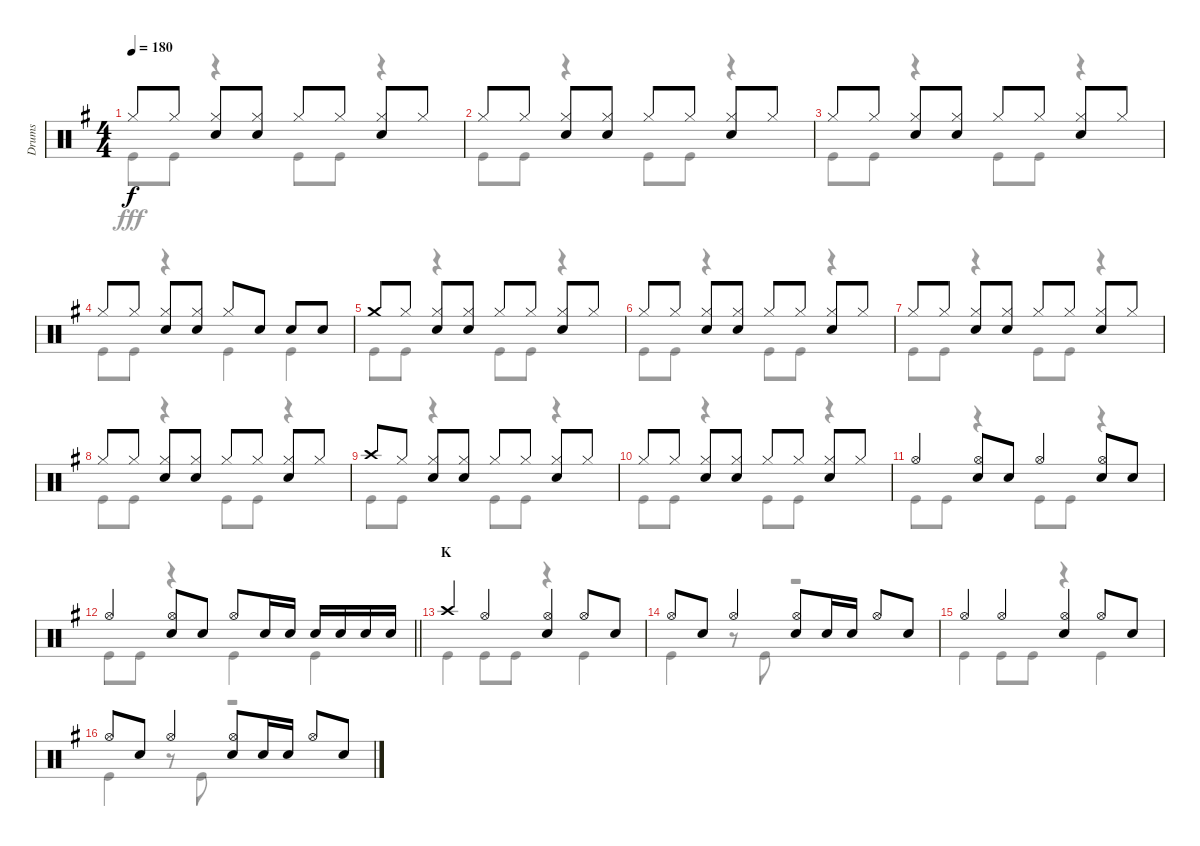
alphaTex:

\track ("Drums" "Drums") {instrument percussion}
\staff {score}
\articulation defaults
\voice
\ts (4 4)
\tempo 180
\clef neutral
\ks g "Hi-Hat (closed)".8{dy f} "Hi-Hat (closed)".8
("Hi-Hat (closed)" "Snare (hit) 2").8 ("Hi-Hat (closed)" "Snare (hit) 2").8 "Hi-Hat (closed)".8 "Hi-Hat (closed)".8 ("Hi-Hat (closed)" "Snare (hit) 2").8 "Hi-Hat (closed)".8 |
"Hi-Hat (closed)".8 "Hi-Hat (closed)".8 ("Hi-Hat (closed)" "Snare (hit) 2").8 ("Hi-Hat (closed)" "Snare (hit) 2").8 "Hi-Hat (closed)".8 "Hi-Hat (closed)".8 ("Hi-Hat (closed)" "Snare (hit) 2").8 "Hi-Hat (closed)".8 |
"Hi-Hat (closed)".8 "Hi-Hat (closed)".8 ("Hi-Hat (closed)" "Snare (hit) 2").8 ("Hi-Hat (closed)" "Snare (hit) 2").8 "Hi-Hat (closed)".8 "Hi-Hat (closed)".8 ("Hi-Hat (closed)" "Snare (hit) 2").8 "Hi-Hat (closed)".8 |
"Hi-Hat (closed)".8 "Hi-Hat (closed)".8 ("Hi-Hat (closed)" "Snare (hit) 2").8 ("Hi-Hat (closed)" "Snare (hit) 2").8 "Hi-Hat (closed)".8 "Snare (hit) 2".8 "Snare (hit) 2".8 "Snare (hit) 2".8 |
"Crash medium (hit)".8 "Hi-Hat (closed)".8 ("Hi-Hat (closed)" "Snare (hit) 2").8 ("Hi-Hat (closed)" "Snare (hit) 2").8 "Hi-Hat (closed)".8 "Hi-Hat (closed)".8 ("Hi-Hat (closed)" "Snare (hit) 2").8 "Hi-Hat (closed)".8 |
"Hi-Hat (closed)".8 "Hi-Hat (closed)".8 ("Hi-Hat (closed)" "Snare (hit) 2").8 ("Hi-Hat (closed)" "Snare (hit) 2").8 "Hi-Hat (closed)".8 "Hi-Hat (closed)".8 ("Hi-Hat (closed)" "Snare (hit) 2").8 "Hi-Hat (closed)".8 |
"Hi-Hat (closed)".8 "Hi-Hat (closed)".8 ("Hi-Hat (closed)" "Snare (hit) 2").8 ("Hi-Hat (closed)" "Snare (hit) 2").8 "Hi-Hat (closed)".8 "Hi-Hat (closed)".8 ("Hi-Hat (closed)" "Snare (hit) 2").8 "Hi-Hat (closed)".8 |
"Hi-Hat (closed)".8 "Hi-Hat (closed)".8 ("Hi-Hat (closed)" "Snare (hit) 2").8 ("Hi-Hat (closed)" "Snare (hit) 2").8 "Hi-Hat (closed)".8 "Hi-Hat (closed)".8 ("Hi-Hat (closed)" "Snare (hit) 2").8 "Hi-Hat (closed)".8 |
"Crash high (hit)".8 "Hi-Hat (closed)".8 ("Hi-Hat (closed)" "Snare (hit) 2").8 ("Hi-Hat (closed)" "Snare (hit) 2").8 "Hi-Hat (closed)".8 "Hi-Hat (closed)".8 ("Hi-Hat (closed)" "Snare (hit) 2").8 "Hi-Hat (closed)".8 |
"Hi-Hat (closed)".8 "Hi-Hat (closed)".8 ("Hi-Hat (closed)" "Snare (hit) 2").8 ("Hi-Hat (closed)" "Snare (hit) 2").8 "Hi-Hat (closed)".8 "Hi-Hat (closed)".8 ("Hi-Hat (closed)" "Snare (hit) 2").8 "Hi-Hat (closed)".8 |
"Hi-Hat (open)".4 ("Hi-Hat (open)" "Snare (hit) 2").8 "Snare (hit) 2".8 "Hi-Hat (open)".4 ("Hi-Hat (open)" "Snare (hit) 2").8 "Snare (hit) 2".8 |
\barLineRight lightlight "Hi-Hat (open)".4
("Hi-Hat (open)" "Snare (hit) 2").8 "Snare (hit) 2".8 "Hi-Hat (open)".8 "Snare (hit) 2".16 "Snare (hit) 2".16 "Snare (hit) 2".16 "Snare (hit) 2".16 "Snare (hit) 2".16 "Snare (hit) 2".16 |
\section ("" "K")
"Crash high (hit)".4 "Hi-Hat (open)".4 ("Hi-Hat (open)" "Snare (hit) 2").4 "Hi-Hat (open)".8 "Snare (hit) 2".8 |
"Hi-Hat (open)".8 "Snare (hit) 2".8 "Hi-Hat (open)".4 ("Hi-Hat (open)" "Snare (hit) 2").8 "Snare (hit) 2".16 "Snare (hit) 2".16 "Hi-Hat (open)".8 "Snare (hit) 2".8 |
"Hi-Hat (open)".4 "Hi-Hat (open)".4 ("Hi-Hat (open)" "Snare (hit) 2").4 "Hi-Hat (open)".8 "Snare (hit) 2".8 |
"Hi-Hat (open)".8 "Snare (hit) 2".8 "Hi-Hat (open)".4 ("Hi-Hat (open)" "Snare (hit) 2").8 "Snare (hit) 2".16 "Snare (hit) 2".16 "Hi-Hat (open)".8 "Snare (hit) 2".8
\voice
\clef neutral
\ottava regular
\simile none
\ks g "Kick (hit)".8{dy fff} "Kick (hit)".8
r.4 "Kick (hit)".8 "Kick (hit)".8 r.4 |
"Kick (hit)".8 "Kick (hit)".8 r.4 "Kick (hit)".8 "Kick (hit)".8 r.4 |
"Kick (hit)".8 "Kick (hit)".8 r.4 "Kick (hit)".8 "Kick (hit)".8 r.4 |
"Kick (hit)".8 "Kick (hit)".8 r.4 "Kick (hit)".4 "Kick (hit)".4 |
"Kick (hit)".8 "Kick (hit)".8 r.4 "Kick (hit)".8 "Kick (hit)".8 r.4 |
"Kick (hit)".8 "Kick (hit)".8 r.4 "Kick (hit)".8 "Kick (hit)".8 r.4 |
"Kick (hit)".8 "Kick (hit)".8 r.4 "Kick (hit)".8 "Kick (hit)".8 r.4 |
"Kick (hit)".8 "Kick (hit)".8 r.4 "Kick (hit)".8 "Kick (hit)".8 r.4 |
"Kick (hit)".8 "Kick (hit)".8 r.4 "Kick (hit)".8 "Kick (hit)".8 r.4 |
"Kick (hit)".8 "Kick (hit)".8 r.4 "Kick (hit)".8 "Kick (hit)".8 r.4 |
"Kick (hit)".8 "Kick (hit)".8 r.4 "Kick (hit)".8 "Kick (hit)".8 r.4 |
\barLineRight lightlight "Kick (hit)".8 "Kick (hit)".8
r.4 "Kick (hit)".4 "Kick (hit)".4 |
"Kick (hit)".4 "Kick (hit)".8 "Kick (hit)".8 r.4 "Kick (hit)".4 |
"Kick (hit)".4 r.8 "Kick (hit)".8 r.2 |
"Kick (hit)".4 "Kick (hit)".8 "Kick (hit)".8 r.4 "Kick (hit)".4 |
"Kick (hit)".4 r.8 "Kick (hit)".8 r.2
